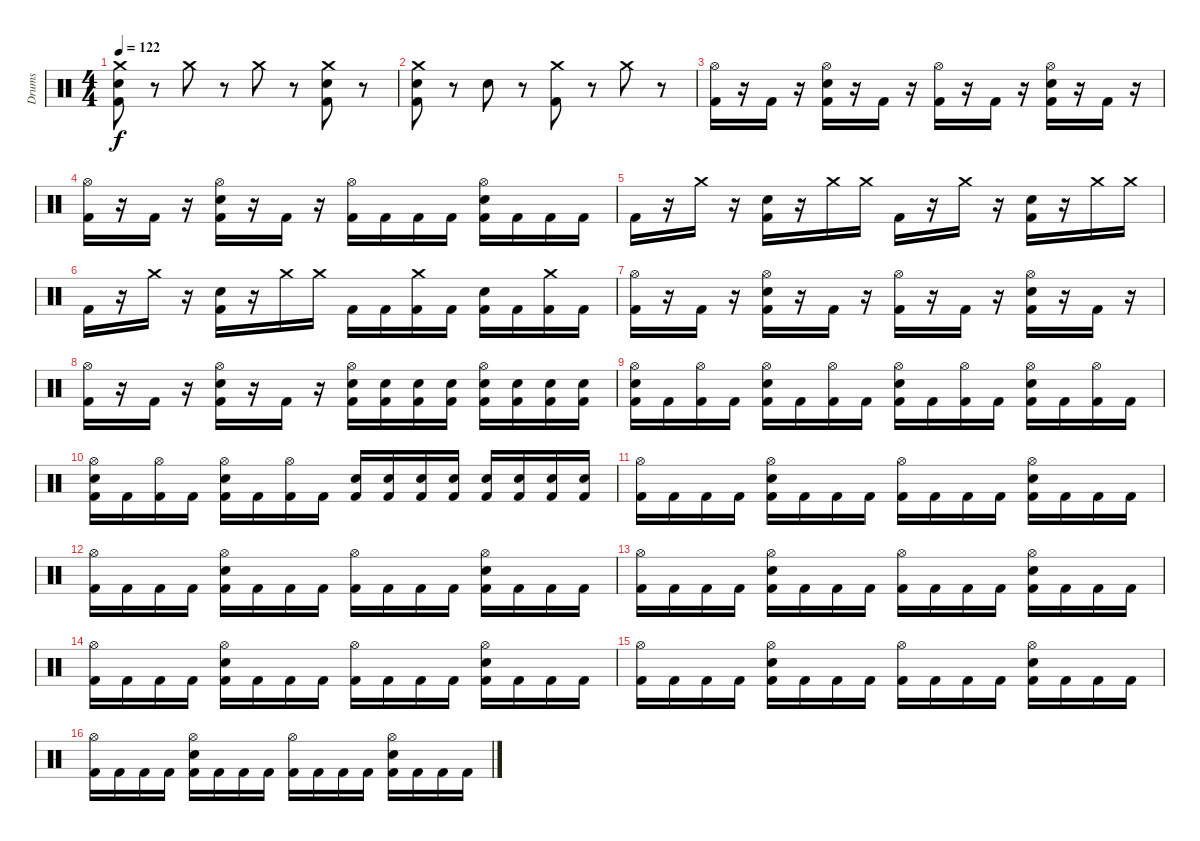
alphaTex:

\track ("Drums" "Drums") {instrument percussion}
\staff {score}
\articulation defaults
\ts (4 4)
\tempo 122
\clef neutral
\ks c
("Crash medium (hit)" "Snare (hit) 2" "Kick (hit) 2").8{dy f} r.8 "Crash medium (hit)".8 r.8 "Crash medium (hit)".8 r.8 ("Crash medium (hit)" "Snare (hit) 2" "Kick (hit) 2").8 r.8 |
("Crash medium (hit)" "Snare (hit) 2" "Kick (hit) 2").8 r.8 "Snare (hit) 2".8 r.8 ("Crash medium (hit)" "Kick (hit) 2").8 r.8 "Crash medium (hit)".8 r.8 |
("Hi-Hat (open)" "Kick (hit) 2").16 r.16 "Kick (hit) 2".16 r.16 ("Hi-Hat (open)" "Snare (hit) 2" "Kick (hit) 2").16 r.16 "Kick (hit) 2".16 r.16 ("Hi-Hat (open)" "Kick (hit) 2").16 r.16 "Kick (hit) 2".16 r.16 ("Hi-Hat (open)" "Snare (hit) 2" "Kick (hit) 2").16 r.16 "Kick (hit) 2".16 r.16 |
("Hi-Hat (open)" "Kick (hit) 2").16 r.16 "Kick (hit) 2".16 r.16 ("Hi-Hat (open)" "Snare (hit) 2" "Kick (hit) 2").16 r.16 "Kick (hit) 2".16 r.16 ("Hi-Hat (open)" "Kick (hit) 2").16 "Kick (hit) 2".16 "Kick (hit) 2".16 "Kick (hit) 2".16 ("Hi-Hat (open)" "Snare (hit) 2" "Kick (hit) 2").16 "Kick (hit) 2".16 "Kick (hit) 2".16 "Kick (hit) 2".16 |
"Kick (hit) 2".16 r.16 "Crash medium (hit)".16 r.16 ("Snare (hit) 2" "Kick (hit) 2").16 r.16 "Crash medium (hit)".16 "Crash medium (hit)".16 "Kick (hit) 2".16 r.16 "Crash medium (hit)".16 r.16 ("Snare (hit) 2" "Kick (hit) 2").16 r.16 "Crash medium (hit)".16 "Crash medium (hit)".16 |
"Kick (hit) 2".16 r.16 "Crash medium (hit)".16 r.16 ("Snare (hit) 2" "Kick (hit) 2").16 r.16 "Crash medium (hit)".16 "Crash medium (hit)".16 "Kick (hit) 2".16 "Kick (hit) 2".16 ("Crash medium (hit)" "Kick (hit) 2").16 "Kick (hit) 2".16 ("Snare (hit) 2" "Kick (hit) 2").16 "Kick (hit) 2".16 ("Crash medium (hit)" "Kick (hit) 2").16 "Kick (hit) 2".16 |
("Hi-Hat (open)" "Kick (hit) 2").16 r.16 "Kick (hit) 2".16 r.16 ("Hi-Hat (open)" "Snare (hit) 2" "Kick (hit) 2").16 r.16 "Kick (hit) 2".16 r.16 ("Hi-Hat (open)" "Kick (hit) 2").16 r.16 "Kick (hit) 2".16 r.16 ("Hi-Hat (open)" "Snare (hit) 2" "Kick (hit) 2").16 r.16 "Kick (hit) 2".16 r.16 |
("Hi-Hat (open)" "Kick (hit) 2").16 r.16 "Kick (hit) 2".16 r.16 ("Hi-Hat (open)" "Snare (hit) 2" "Kick (hit) 2").16 r.16 "Kick (hit) 2".16 r.16 ("Hi-Hat (open)" "Snare (hit) 2" "Kick (hit) 2").16 ("Snare (hit) 2" "Kick (hit) 2").16 ("Snare (hit) 2" "Kick (hit) 2").16 ("Snare (hit) 2" "Kick (hit) 2").16 ("Hi-Hat (open)" "Snare (hit) 2" "Kick (hit) 2").16 ("Snare (hit) 2" "Kick (hit) 2").16 ("Snare (hit) 2" "Kick (hit) 2").16 ("Snare (hit) 2" "Kick (hit) 2").16 |
("Hi-Hat (open)" "Snare (hit) 2" "Kick (hit) 2").16 "Kick (hit) 2".16 ("Hi-Hat (open)" "Kick (hit) 2").16 "Kick (hit) 2".16 ("Hi-Hat (open)" "Snare (hit) 2" "Kick (hit) 2").16 "Kick (hit) 2".16 ("Hi-Hat (open)" "Kick (hit) 2").16 "Kick (hit) 2".16 ("Hi-Hat (open)" "Snare (hit) 2" "Kick (hit) 2").16 "Kick (hit) 2".16 ("Hi-Hat (open)" "Kick (hit) 2").16 "Kick (hit) 2".16 ("Hi-Hat (open)" "Snare (hit) 2" "Kick (hit) 2").16 "Kick (hit) 2".16 ("Hi-Hat (open)" "Kick (hit) 2").16 "Kick (hit) 2".16 |
("Hi-Hat (open)" "Snare (hit) 2" "Kick (hit) 2").16 "Kick (hit) 2".16 ("Hi-Hat (open)" "Kick (hit) 2").16 "Kick (hit) 2".16 ("Hi-Hat (open)" "Snare (hit) 2" "Kick (hit) 2").16 "Kick (hit) 2".16 ("Hi-Hat (open)" "Kick (hit) 2").16 "Kick (hit) 2".16 ("Snare (hit) 2" "Kick (hit) 2").16 ("Snare (hit) 2" "Kick (hit) 2").16 ("Snare (hit) 2" "Kick (hit) 2").16 ("Snare (hit) 2" "Kick (hit) 2").16 ("Snare (hit) 2" "Kick (hit) 2").16 ("Snare (hit) 2" "Kick (hit) 2").16 ("Snare (hit) 2" "Kick (hit) 2").16 ("Snare (hit) 2" "Kick (hit) 2").16 |
("Hi-Hat (open)" "Kick (hit) 2").16 "Kick (hit) 2".16 "Kick (hit) 2".16 "Kick (hit) 2".16 ("Hi-Hat (open)" "Snare (hit) 2" "Kick (hit) 2").16 "Kick (hit) 2".16 "Kick (hit) 2".16 "Kick (hit) 2".16 ("Hi-Hat (open)" "Kick (hit) 2").16 "Kick (hit) 2".16 "Kick (hit) 2".16 "Kick (hit) 2".16 ("Hi-Hat (open)" "Snare (hit) 2" "Kick (hit) 2").16 "Kick (hit) 2".16 "Kick (hit) 2".16 "Kick (hit) 2".16 |
("Hi-Hat (open)" "Kick (hit) 2").16 "Kick (hit) 2".16 "Kick (hit) 2".16 "Kick (hit) 2".16 ("Hi-Hat (open)" "Snare (hit) 2" "Kick (hit) 2").16 "Kick (hit) 2".16 "Kick (hit) 2".16 "Kick (hit) 2".16 ("Hi-Hat (open)" "Kick (hit) 2").16 "Kick (hit) 2".16 "Kick (hit) 2".16 "Kick (hit) 2".16 ("Hi-Hat (open)" "Snare (hit) 2" "Kick (hit) 2").16 "Kick (hit) 2".16 "Kick (hit) 2".16 "Kick (hit) 2".16 |
("Hi-Hat (open)" "Kick (hit) 2").16 "Kick (hit) 2".16 "Kick (hit) 2".16 "Kick (hit) 2".16 ("Hi-Hat (open)" "Snare (hit) 2" "Kick (hit) 2").16 "Kick (hit) 2".16 "Kick (hit) 2".16 "Kick (hit) 2".16 ("Hi-Hat (open)" "Kick (hit) 2").16 "Kick (hit) 2".16 "Kick (hit) 2".16 "Kick (hit) 2".16 ("Hi-Hat (open)" "Snare (hit) 2" "Kick (hit) 2").16 "Kick (hit) 2".16 "Kick (hit) 2".16 "Kick (hit) 2".16 |
("Hi-Hat (open)" "Kick (hit) 2").16 "Kick (hit) 2".16 "Kick (hit) 2".16 "Kick (hit) 2".16 ("Hi-Hat (open)" "Snare (hit) 2" "Kick (hit) 2").16 "Kick (hit) 2".16 "Kick (hit) 2".16 "Kick (hit) 2".16 ("Hi-Hat (open)" "Kick (hit) 2").16 "Kick (hit) 2".16 "Kick (hit) 2".16 "Kick (hit) 2".16 ("Hi-Hat (open)" "Snare (hit) 2" "Kick (hit) 2").16 "Kick (hit) 2".16 "Kick (hit) 2".16 "Kick (hit) 2".16 |
("Hi-Hat (open)" "Kick (hit) 2").16 "Kick (hit) 2".16 "Kick (hit) 2".16 "Kick (hit) 2".16 ("Hi-Hat (open)" "Snare (hit) 2" "Kick (hit) 2").16 "Kick (hit) 2".16 "Kick (hit) 2".16 "Kick (hit) 2".16 ("Hi-Hat (open)" "Kick (hit) 2").16 "Kick (hit) 2".16 "Kick (hit) 2".16 "Kick (hit) 2".16 ("Hi-Hat (open)" "Snare (hit) 2" "Kick (hit) 2").16 "Kick (hit) 2".16 "Kick (hit) 2".16 "Kick (hit) 2".16 |
("Hi-Hat (open)" "Kick (hit) 2").16 "Kick (hit) 2".16 "Kick (hit) 2".16 "Kick (hit) 2".16 ("Hi-Hat (open)" "Snare (hit) 2" "Kick (hit) 2").16 "Kick (hit) 2".16 "Kick (hit) 2".16 "Kick (hit) 2".16 ("Hi-Hat (open)" "Kick (hit) 2").16 "Kick (hit) 2".16 "Kick (hit) 2".16 "Kick (hit) 2".16 ("Hi-Hat (open)" "Snare (hit) 2" "Kick (hit) 2").16 "Kick (hit) 2".16 "Kick (hit) 2".16 "Kick (hit) 2".16
